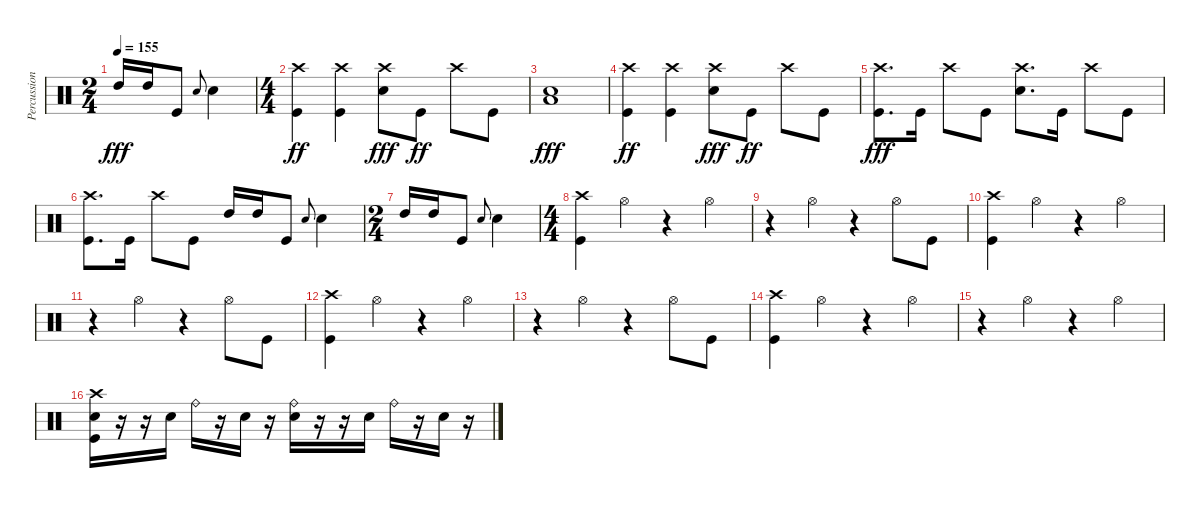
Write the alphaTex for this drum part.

\track ("Percussion" "Percussion") {instrument percussion}
\staff {score}
\articulation defaults
\ts (2 4)
\tempo 155
\clef neutral
\ks c "High Tom (hit)".16{dy fff} "High Tom (hit)".16 "Kick (hit)".8 "Snare (hit) 2".8{gr onbeat} "Snare (hit) 2".4
|
\ts (4 4)
("Crash high (hit)" "Kick (hit)").4{dy ff} ("Crash high (hit)" "Kick (hit)").4 ("Crash high (hit)" "Snare (hit) 2").8{dy fff} "Kick (hit)".8{dy ff} "Crash high (hit)".8 "Kick (hit)".8 |
("Low Tom (hit)" "Snare (hit) 2").1{dy fff} |
("Crash high (hit)" "Kick (hit)").4{dy ff} ("Crash high (hit)" "Kick (hit)").4 ("Crash high (hit)" "Snare (hit) 2").8{dy fff} "Kick (hit)".8{dy ff} "Crash high (hit)".8 "Kick (hit)".8 |
("Crash high (hit)" "Kick (hit)").8{d dy fff} "Kick (hit)".16 "Crash high (hit)".8 "Kick (hit)".8 ("Crash high (hit)" "Snare (hit) 2").8{d} "Kick (hit)".16 "Crash high (hit)".8 "Kick (hit)".8 |
("Crash high (hit)" "Kick (hit)").8{d} "Kick (hit)".16 "Crash high (hit)".8 "Kick (hit)".8 "High Tom (hit)".16 "High Tom (hit)".16 "Kick (hit)".8 "Snare (hit) 2".8{gr onbeat} "Snare (hit) 2".4 |
\ts (2 4)
"High Tom (hit)".16 "High Tom (hit)".16 "Kick (hit)".8 "Snare (hit) 2".8{gr onbeat} "Snare (hit) 2".4 |
\ts (4 4)
("Crash high (hit)" "Kick (hit)").4 "Hi-Hat (open)".4 r.4 "Hi-Hat (open)".4 |
r.4 "Hi-Hat (open)".4 r.4 "Hi-Hat (open)".8 "Kick (hit)".8 |
("Crash high (hit)" "Kick (hit)").4 "Hi-Hat (open)".4 r.4 "Hi-Hat (open)".4 |
r.4 "Hi-Hat (open)".4 r.4 "Hi-Hat (open)".8 "Kick (hit)".8 |
("Crash high (hit)" "Kick (hit)").4 "Hi-Hat (open)".4 r.4 "Hi-Hat (open)".4 |
r.4 "Hi-Hat (open)".4 r.4 "Hi-Hat (open)".8 "Kick (hit)".8 |
("Crash high (hit)" "Kick (hit)").4 "Hi-Hat (open)".4 r.4 "Hi-Hat (open)".4 |
r.4 "Hi-Hat (open)".4 r.4 "Hi-Hat (open)".4 |
("Crash high (hit)" "Snare (hit) 2" "Kick (hit)").16 r.16 r.16 "Snare (hit) 2".16 "Ride (bell)".16 r.16 "Snare (hit) 2".16 r.16 ("Ride (bell)" "Snare (hit) 2").16 r.16 r.16 "Snare (hit) 2".16 "Ride (bell)".16 r.16 "Snare (hit) 2".16 r.16
